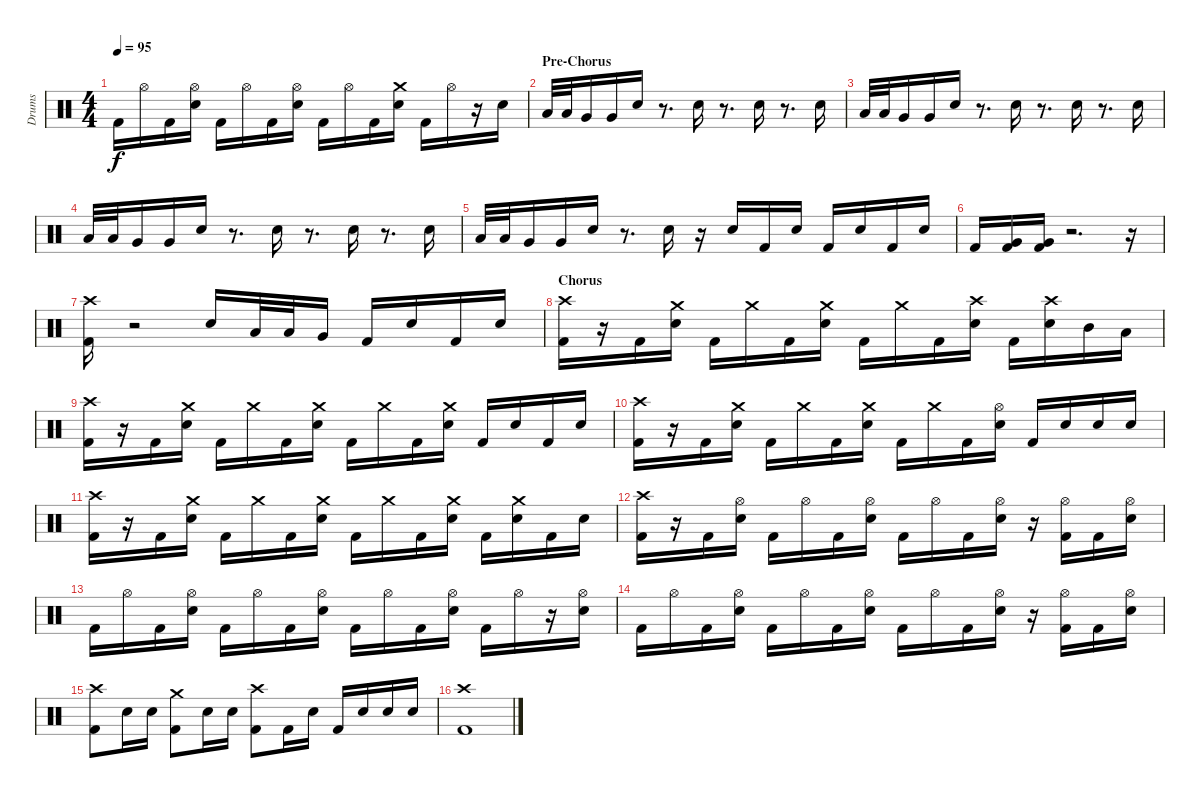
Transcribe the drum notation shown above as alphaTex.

\track ("Drums" "Drums") {instrument percussion}
\staff {score}
\articulation defaults
\ts (4 4)
\tempo 95
\clef neutral
\ks c "Kick (hit) 2".16{dy f} "Hi-Hat (open)".16 "Kick (hit) 2".16
("Hi-Hat (open)" "Electric Snare (hit)").16 "Kick (hit) 2".16 "Hi-Hat (open)".16 "Kick (hit) 2".16 ("Hi-Hat (open)" "Electric Snare (hit)").16 "Kick (hit) 2".16 "Hi-Hat (open)".16 "Kick (hit) 2".16 ("Crash medium (hit)" "Electric Snare (hit)").16 "Kick (hit) 2".16 "Hi-Hat (open)".16 r.16 "Electric Snare (hit)".16 |
\section ("" "Pre-Chorus")
"Low Tom (hit)".32 "Low Tom (hit)".32 "Very Low Tom (hit)".16 "Very Low Tom (hit)".16 "Electric Snare (hit)".16 r.8{d} "Electric Snare (hit)".16 r.8{d} "Electric Snare (hit)".16 r.8{d} "Electric Snare (hit)".16 |
"Low Tom (hit)".32 "Low Tom (hit)".32 "Very Low Tom (hit)".16 "Very Low Tom (hit)".16 "Electric Snare (hit)".16 r.8{d} "Electric Snare (hit)".16 r.8{d} "Electric Snare (hit)".16 r.8{d} "Electric Snare (hit)".16 |
"Low Tom (hit)".32 "Low Tom (hit)".32 "Very Low Tom (hit)".16 "Very Low Tom (hit)".16 "Electric Snare (hit)".16 r.8{d} "Electric Snare (hit)".16 r.8{d} "Electric Snare (hit)".16 r.8{d} "Electric Snare (hit)".16 |
"Low Tom (hit)".32 "Low Tom (hit)".32 "Very Low Tom (hit)".16 "Very Low Tom (hit)".16 "Electric Snare (hit)".16 r.8{d} "Electric Snare (hit)".16 r.16 "Electric Snare (hit)".16 "Kick (hit) 2".16 "Electric Snare (hit)".16 "Kick (hit) 2".16 "Electric Snare (hit)".16 "Kick (hit) 2".16 "Electric Snare (hit)".16 |
"Kick (hit) 2".16 ("Very Low Tom (hit)" "Kick (hit) 2").16 ("Very Low Tom (hit)" "Kick (hit) 2").16 r.2{d} r.16 |
("Crash high (hit)" "Kick (hit) 2").16 r.2 "Electric Snare (hit)".16 "Low Tom (hit)".32 "Low Tom (hit)".32 "Very Low Tom (hit)".16 "Kick (hit) 2".16 "Electric Snare (hit)".16 "Kick (hit) 2".16 "Electric Snare (hit)".16 |
\section ("" "Chorus")
("Crash high (hit)" "Kick (hit) 2").16 r.16 "Kick (hit) 2".16 ("Crash medium (hit)" "Electric Snare (hit)").16 "Kick (hit) 2".16 "Crash medium (hit)".16 "Kick (hit) 2".16 ("Crash medium (hit)" "Electric Snare (hit)").16 "Kick (hit) 2".16 "Crash medium (hit)".16 "Kick (hit) 2".16 ("Crash high (hit)" "Electric Snare (hit)").16 "Kick (hit) 2".16 ("Crash high (hit)" "Electric Snare (hit)").16 "Mid Tom (hit)".16 "Low Tom (hit)".16 |
("Crash high (hit)" "Kick (hit) 2").16 r.16 "Kick (hit) 2".16 ("Crash medium (hit)" "Electric Snare (hit)").16 "Kick (hit) 2".16 "Crash medium (hit)".16 "Kick (hit) 2".16 ("Crash medium (hit)" "Electric Snare (hit)").16 "Kick (hit) 2".16 "Crash medium (hit)".16 "Kick (hit) 2".16 ("Crash medium (hit)" "Electric Snare (hit)").16 "Kick (hit) 2".16 "Electric Snare (hit)".16 "Kick (hit) 2".16 "Electric Snare (hit)".16 |
("Crash high (hit)" "Kick (hit) 2").16 r.16 "Kick (hit) 2".16 ("Crash medium (hit)" "Electric Snare (hit)").16 "Kick (hit) 2".16 "Crash medium (hit)".16 "Kick (hit) 2".16 ("Crash medium (hit)" "Electric Snare (hit)").16 "Kick (hit) 2".16 "Crash medium (hit)".16 "Kick (hit) 2".16 ("Hi-Hat (open)" "Electric Snare (hit)").16 "Kick (hit) 2".16 "Electric Snare (hit)".16 "Electric Snare (hit)".16 "Electric Snare (hit)".16 |
("Crash high (hit)" "Kick (hit) 2").16 r.16 "Kick (hit) 2".16 ("Crash medium (hit)" "Electric Snare (hit)").16 "Kick (hit) 2".16 "Crash medium (hit)".16 "Kick (hit) 2".16 ("Crash medium (hit)" "Electric Snare (hit)").16 "Kick (hit) 2".16 "Crash medium (hit)".16 "Kick (hit) 2".16 ("Crash medium (hit)" "Electric Snare (hit)").16 "Kick (hit) 2".16 ("Crash medium (hit)" "Electric Snare (hit)").16 "Kick (hit) 2".16 "Electric Snare (hit)".16 |
("Crash high (hit)" "Kick (hit) 2").16 r.16 "Kick (hit) 2".16 ("Hi-Hat (open)" "Electric Snare (hit)").16 "Kick (hit) 2".16 "Hi-Hat (open)".16 "Kick (hit) 2".16 ("Hi-Hat (open)" "Electric Snare (hit)").16 "Kick (hit) 2".16 "Hi-Hat (open)".16 "Kick (hit) 2".16 ("Hi-Hat (open)" "Electric Snare (hit)").16 r.16 ("Hi-Hat (open)" "Kick (hit) 2").16 "Kick (hit) 2".16 ("Hi-Hat (open)" "Electric Snare (hit)").16 |
"Kick (hit) 2".16 "Hi-Hat (open)".16 "Kick (hit) 2".16 ("Hi-Hat (open)" "Electric Snare (hit)").16 "Kick (hit) 2".16 "Hi-Hat (open)".16 "Kick (hit) 2".16 ("Hi-Hat (open)" "Electric Snare (hit)").16 "Kick (hit) 2".16 "Hi-Hat (open)".16 "Kick (hit) 2".16 ("Hi-Hat (open)" "Electric Snare (hit)").16 "Kick (hit) 2".16 "Hi-Hat (open)".16 r.16 ("Hi-Hat (open)" "Electric Snare (hit)").16 |
"Kick (hit) 2".16 "Hi-Hat (open)".16 "Kick (hit) 2".16 ("Hi-Hat (open)" "Electric Snare (hit)").16 "Kick (hit) 2".16 "Hi-Hat (open)".16 "Kick (hit) 2".16 ("Hi-Hat (open)" "Electric Snare (hit)").16 "Kick (hit) 2".16 "Hi-Hat (open)".16 "Kick (hit) 2".16 ("Hi-Hat (open)" "Electric Snare (hit)").16 r.16 ("Hi-Hat (open)" "Kick (hit) 2").16 "Kick (hit) 2".16 ("Hi-Hat (open)" "Electric Snare (hit)").16 |
("Crash high (hit)" "Kick (hit) 2").8 "Electric Snare (hit)".16 "Electric Snare (hit)".16 ("Crash medium (hit)" "Kick (hit) 2").8 "Electric Snare (hit)".16 "Electric Snare (hit)".16 ("Crash high (hit)" "Kick (hit) 2").8 "Kick (hit) 2".16 "Electric Snare (hit)".16 "Kick (hit) 2".16 "Electric Snare (hit)".16 "Electric Snare (hit)".16 "Electric Snare (hit)".16 |
("Crash high (hit)" "Kick (hit) 2").1
